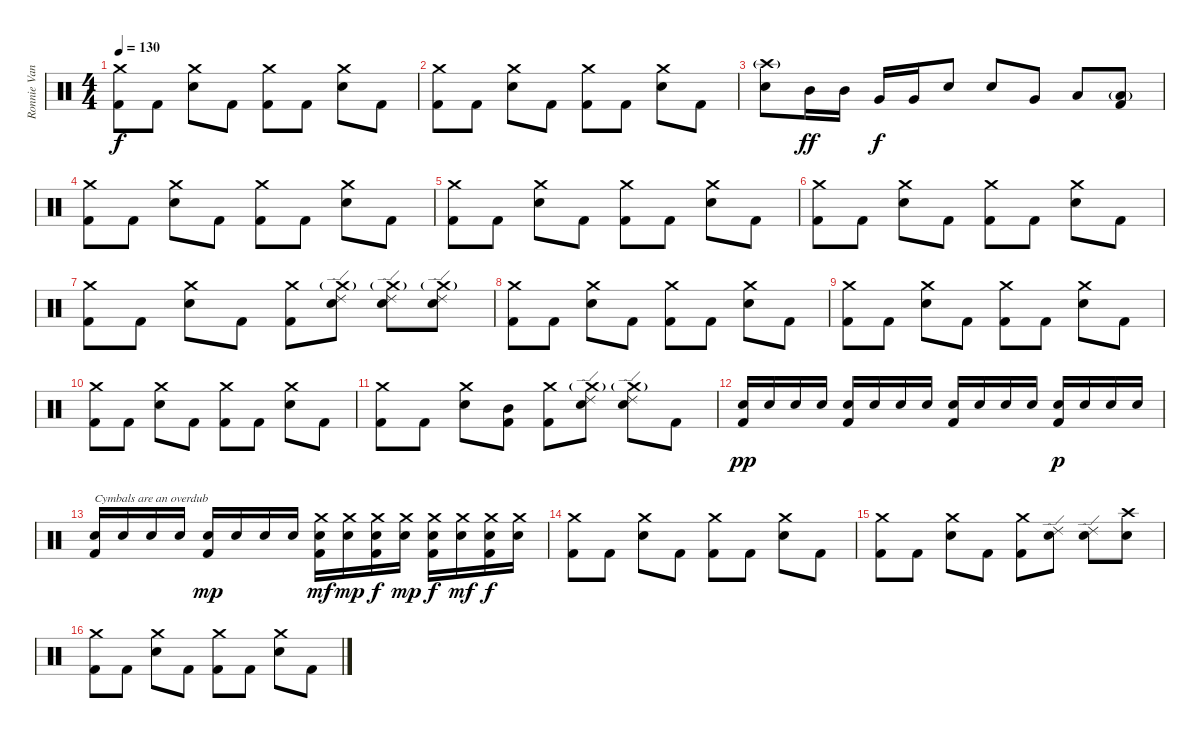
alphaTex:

\track ("Ronnie Vannucci Jr." "Ronnie Van") {instrument percussion}
\staff {score}
\articulation defaults
\ts (4 4)
\tempo 130
\clef neutral
\ks c
("Crash medium (hit)" "Kick (hit) 2").8{dy f} "Kick (hit) 2".8 ("Crash medium (hit)" "Electric Snare (hit)").8 "Kick (hit) 2".8 ("Crash medium (hit)" "Kick (hit) 2").8 "Kick (hit) 2".8 ("Crash medium (hit)" "Electric Snare (hit)").8 "Kick (hit) 2".8 |
("Crash medium (hit)" "Kick (hit) 2").8 "Kick (hit) 2".8 ("Crash medium (hit)" "Electric Snare (hit)").8 "Kick (hit) 2".8 ("Crash medium (hit)" "Kick (hit) 2").8 "Kick (hit) 2".8 ("Crash medium (hit)" "Electric Snare (hit)").8 "Kick (hit) 2".8 |
("Crash high (hit)"{g} "Electric Snare (hit)").8 "Mid Tom (hit)".16{dy ff} "Mid Tom (hit)".16 "Very Low Tom (hit)".16{dy f} "Very Low Tom (hit)".16 "Electric Snare (hit)".8 "Electric Snare (hit)".8 "Very Low Tom (hit)".8 "Low Floor Tom (hit)".8 ("Low Floor Tom (hit)"{g} "Kick (hit) 2").8 |
("Crash medium (hit)" "Kick (hit) 2").8 "Kick (hit) 2".8 ("Crash medium (hit)" "Electric Snare (hit)").8 "Kick (hit) 2".8 ("Crash medium (hit)" "Kick (hit) 2").8 "Kick (hit) 2".8 ("Crash medium (hit)" "Electric Snare (hit)").8 "Kick (hit) 2".8 |
("Crash medium (hit)" "Kick (hit) 2").8 "Kick (hit) 2".8 ("Crash medium (hit)" "Electric Snare (hit)").8 "Kick (hit) 2".8 ("Crash medium (hit)" "Kick (hit) 2").8 "Kick (hit) 2".8 ("Crash medium (hit)" "Electric Snare (hit)").8 "Kick (hit) 2".8 |
("Crash medium (hit)" "Kick (hit) 2").8 "Kick (hit) 2".8 ("Crash medium (hit)" "Electric Snare (hit)").8 "Kick (hit) 2".8 ("Crash medium (hit)" "Kick (hit) 2").8 "Kick (hit) 2".8 ("Crash medium (hit)" "Electric Snare (hit)").8 "Kick (hit) 2".8 |
("Crash medium (hit)" "Kick (hit) 2").8 "Kick (hit) 2".8 ("Crash medium (hit)" "Electric Snare (hit)").8 "Kick (hit) 2".8 ("Crash medium (hit)" "Kick (hit) 2").8 ("Crash medium (hit)"{g} "Ride (edge) 2" "Electric Snare (hit)").8 ("Crash medium (hit)"{g} "Ride (edge) 2" "Electric Snare (hit)").8 ("Crash medium (hit)"{g} "Ride (edge) 2" "Electric Snare (hit)").8 |
("Crash medium (hit)" "Kick (hit) 2").8 "Kick (hit) 2".8 ("Crash medium (hit)" "Electric Snare (hit)").8 "Kick (hit) 2".8 ("Crash medium (hit)" "Kick (hit) 2").8 "Kick (hit) 2".8 ("Crash medium (hit)" "Electric Snare (hit)").8 "Kick (hit) 2".8 |
("Crash medium (hit)" "Kick (hit) 2").8 "Kick (hit) 2".8 ("Crash medium (hit)" "Electric Snare (hit)").8 "Kick (hit) 2".8 ("Crash medium (hit)" "Kick (hit) 2").8 "Kick (hit) 2".8 ("Crash medium (hit)" "Electric Snare (hit)").8 "Kick (hit) 2".8 |
("Crash medium (hit)" "Kick (hit) 2").8 "Kick (hit) 2".8 ("Crash medium (hit)" "Electric Snare (hit)").8 "Kick (hit) 2".8 ("Crash medium (hit)" "Kick (hit) 2").8 "Kick (hit) 2".8 ("Crash medium (hit)" "Electric Snare (hit)").8 "Kick (hit) 2".8 |
("Crash medium (hit)" "Kick (hit) 2").8 "Kick (hit) 2".8 ("Crash medium (hit)" "Electric Snare (hit)").8 ("Mid Tom (hit)" "Kick (hit) 2").8 ("Crash medium (hit)" "Kick (hit) 2").8 ("Crash medium (hit)"{g} "Ride (edge) 2" "Electric Snare (hit)").8 ("Crash medium (hit)"{g} "Ride (edge) 2" "Electric Snare (hit)").8 "Kick (hit) 2".8 |
("Electric Snare (hit)" "Kick (hit) 2").16{dy pp} "Electric Snare (hit)".16 "Electric Snare (hit)".16 "Electric Snare (hit)".16 ("Electric Snare (hit)" "Kick (hit) 2").16 "Electric Snare (hit)".16 "Electric Snare (hit)".16 "Electric Snare (hit)".16 ("Electric Snare (hit)" "Kick (hit) 2").16 "Electric Snare (hit)".16 "Electric Snare (hit)".16 "Electric Snare (hit)".16 ("Electric Snare (hit)" "Kick (hit) 2").16{dy p} "Electric Snare (hit)".16 "Electric Snare (hit)".16 "Electric Snare (hit)".16 |
("Electric Snare (hit)" "Kick (hit) 2").16{txt "Cymbals are an overdub"} "Electric Snare (hit)".16 "Electric Snare (hit)".16 "Electric Snare (hit)".16 ("Electric Snare (hit)" "Kick (hit) 2").16{dy mp} "Electric Snare (hit)".16 "Electric Snare (hit)".16 "Electric Snare (hit)".16 ("Crash medium (hit)" "Electric Snare (hit)" "Kick (hit) 2").16{dy mf} ("Crash medium (hit)" "Electric Snare (hit)").16{dy mp} ("Crash medium (hit)" "Electric Snare (hit)" "Kick (hit) 2").16{dy f} ("Crash medium (hit)" "Electric Snare (hit)").16{dy mp} ("Crash medium (hit)" "Electric Snare (hit)" "Kick (hit) 2").16{dy f} ("Crash medium (hit)" "Electric Snare (hit)").16{dy mf} ("Crash medium (hit)" "Electric Snare (hit)" "Kick (hit) 2").16{dy f} ("Crash medium (hit)" "Electric Snare (hit)").16 |
("Crash medium (hit)" "Kick (hit) 2").8 "Kick (hit) 2".8 ("Crash medium (hit)" "Electric Snare (hit)").8 "Kick (hit) 2".8 ("Crash medium (hit)" "Kick (hit) 2").8 "Kick (hit) 2".8 ("Crash medium (hit)" "Electric Snare (hit)").8 "Kick (hit) 2".8 |
("Crash medium (hit)" "Kick (hit) 2").8 "Kick (hit) 2".8 ("Crash medium (hit)" "Electric Snare (hit)").8 "Kick (hit) 2".8 ("Crash medium (hit)" "Kick (hit) 2").8 ("Ride (edge) 2" "Electric Snare (hit)").8 ("Ride (edge) 2" "Electric Snare (hit)").8 ("Crash high (hit)" "Electric Snare (hit)").8 |
("Crash medium (hit)" "Kick (hit) 2").8 "Kick (hit) 2".8 ("Crash medium (hit)" "Electric Snare (hit)").8 "Kick (hit) 2".8 ("Crash medium (hit)" "Kick (hit) 2").8 "Kick (hit) 2".8 ("Crash medium (hit)" "Electric Snare (hit)").8 "Kick (hit) 2".8
